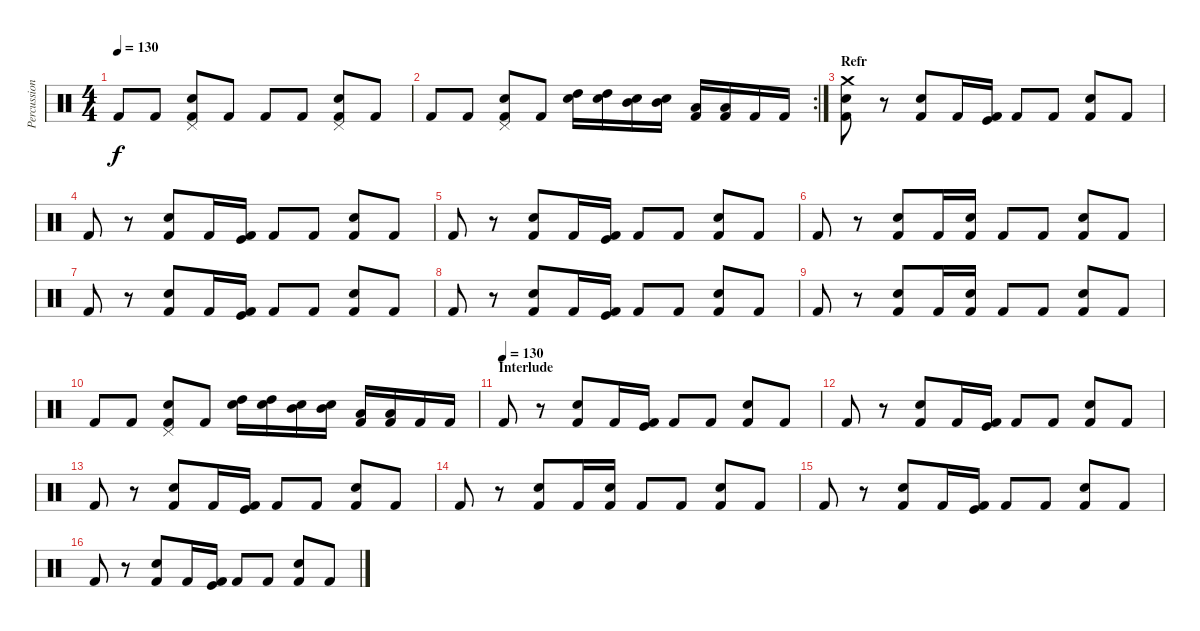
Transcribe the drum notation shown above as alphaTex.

\track ("Percussion" "Percussion") {instrument percussion}
\staff {score}
\articulation defaults
\ts (4 4)
\tempo 130
\clef neutral
\ks c "Kick (hit) 2".8{dy f} "Kick (hit) 2".8
("Snare (hit) 2" "Kick (hit) 2" "Pedal Hi-Hat (hit)").8 "Kick (hit) 2".8 "Kick (hit) 2".8 "Kick (hit) 2".8 ("Snare (hit) 2" "Kick (hit) 2" "Pedal Hi-Hat (hit)").8 "Kick (hit) 2".8 |
\rc 2 "Kick (hit) 2".8 "Kick (hit) 2".8
("Snare (hit) 2" "Kick (hit) 2" "Pedal Hi-Hat (hit)").8 "Kick (hit) 2".8 ("Electric Snare (hit)" "High Tom (hit)").16 ("Electric Snare (hit)" "High Tom (hit)").16 ("Electric Snare (hit)" "Mid Tom (hit)").16 ("Electric Snare (hit)" "Mid Tom (hit)").16 ("Kick (hit) 2" "Low Tom (hit)").16 ("Kick (hit) 2" "Low Tom (hit)").16 "Kick (hit) 2".16 "Kick (hit) 2".16 |
\section ("" "Refr")
("Kick (hit) 2" "Snare (hit) 2" "Crash medium (hit)").8 r.8 ("Electric Snare (hit)" "Kick (hit) 2").8 "Kick (hit) 2".16 ("Kick (hit) 2" "Kick (hit)").16 "Kick (hit) 2".8 "Kick (hit) 2".8 ("Snare (hit) 2" "Kick (hit) 2").8 "Kick (hit) 2".8 |
"Kick (hit) 2".8 r.8 ("Electric Snare (hit)" "Kick (hit) 2").8 "Kick (hit) 2".16 ("Kick (hit) 2" "Kick (hit)").16 "Kick (hit) 2".8 "Kick (hit) 2".8 ("Snare (hit) 2" "Kick (hit) 2").8 "Kick (hit) 2".8 |
"Kick (hit) 2".8 r.8 ("Electric Snare (hit)" "Kick (hit) 2").8 "Kick (hit) 2".16 ("Kick (hit) 2" "Kick (hit)").16 "Kick (hit) 2".8 "Kick (hit) 2".8 ("Snare (hit) 2" "Kick (hit) 2").8 "Kick (hit) 2".8 |
"Kick (hit) 2".8 r.8 ("Electric Snare (hit)" "Kick (hit) 2").8 "Kick (hit) 2".16 ("Kick (hit) 2" "Snare (hit) 2").16 "Kick (hit) 2".8 "Kick (hit) 2".8 ("Snare (hit) 2" "Kick (hit) 2").8 "Kick (hit) 2".8 |
"Kick (hit) 2".8 r.8 ("Electric Snare (hit)" "Kick (hit) 2").8 "Kick (hit) 2".16 ("Kick (hit) 2" "Kick (hit)").16 "Kick (hit) 2".8 "Kick (hit) 2".8 ("Snare (hit) 2" "Kick (hit) 2").8 "Kick (hit) 2".8 |
"Kick (hit) 2".8 r.8 ("Electric Snare (hit)" "Kick (hit) 2").8 "Kick (hit) 2".16 ("Kick (hit) 2" "Kick (hit)").16 "Kick (hit) 2".8 "Kick (hit) 2".8 ("Snare (hit) 2" "Kick (hit) 2").8 "Kick (hit) 2".8 |
"Kick (hit) 2".8 r.8 ("Electric Snare (hit)" "Kick (hit) 2").8 "Kick (hit) 2".16 ("Kick (hit) 2" "Snare (hit) 2").16 "Kick (hit) 2".8 "Kick (hit) 2".8 ("Snare (hit) 2" "Kick (hit) 2").8 "Kick (hit) 2".8 |
"Kick (hit) 2".8 "Kick (hit) 2".8 ("Snare (hit) 2" "Kick (hit) 2" "Pedal Hi-Hat (hit)").8 "Kick (hit) 2".8 ("Electric Snare (hit)" "High Tom (hit)").16 ("Electric Snare (hit)" "High Tom (hit)").16 ("Electric Snare (hit)" "Mid Tom (hit)").16 ("Electric Snare (hit)" "Mid Tom (hit)").16 ("Kick (hit) 2" "Low Tom (hit)").16 ("Kick (hit) 2" "Low Tom (hit)").16 "Kick (hit) 2".16 "Kick (hit) 2".16 |
\section ("" "Interlude")
\tempo (130)
"Kick (hit) 2".8 r.8 ("Electric Snare (hit)" "Kick (hit) 2").8 "Kick (hit) 2".16 ("Kick (hit) 2" "Kick (hit)").16 "Kick (hit) 2".8 "Kick (hit) 2".8 ("Snare (hit) 2" "Kick (hit) 2").8 "Kick (hit) 2".8 |
"Kick (hit) 2".8 r.8 ("Electric Snare (hit)" "Kick (hit) 2").8 "Kick (hit) 2".16 ("Kick (hit) 2" "Kick (hit)").16 "Kick (hit) 2".8 "Kick (hit) 2".8 ("Snare (hit) 2" "Kick (hit) 2").8 "Kick (hit) 2".8 |
"Kick (hit) 2".8 r.8 ("Electric Snare (hit)" "Kick (hit) 2").8 "Kick (hit) 2".16 ("Kick (hit) 2" "Kick (hit)").16 "Kick (hit) 2".8 "Kick (hit) 2".8 ("Snare (hit) 2" "Kick (hit) 2").8 "Kick (hit) 2".8 |
"Kick (hit) 2".8 r.8 ("Electric Snare (hit)" "Kick (hit) 2").8 "Kick (hit) 2".16 ("Kick (hit) 2" "Snare (hit) 2").16 "Kick (hit) 2".8 "Kick (hit) 2".8 ("Snare (hit) 2" "Kick (hit) 2").8 "Kick (hit) 2".8 |
"Kick (hit) 2".8 r.8 ("Electric Snare (hit)" "Kick (hit) 2").8 "Kick (hit) 2".16 ("Kick (hit) 2" "Kick (hit)").16 "Kick (hit) 2".8 "Kick (hit) 2".8 ("Snare (hit) 2" "Kick (hit) 2").8 "Kick (hit) 2".8 |
"Kick (hit) 2".8 r.8 ("Electric Snare (hit)" "Kick (hit) 2").8 "Kick (hit) 2".16 ("Kick (hit) 2" "Kick (hit)").16 "Kick (hit) 2".8 "Kick (hit) 2".8 ("Snare (hit) 2" "Kick (hit) 2").8 "Kick (hit) 2".8
